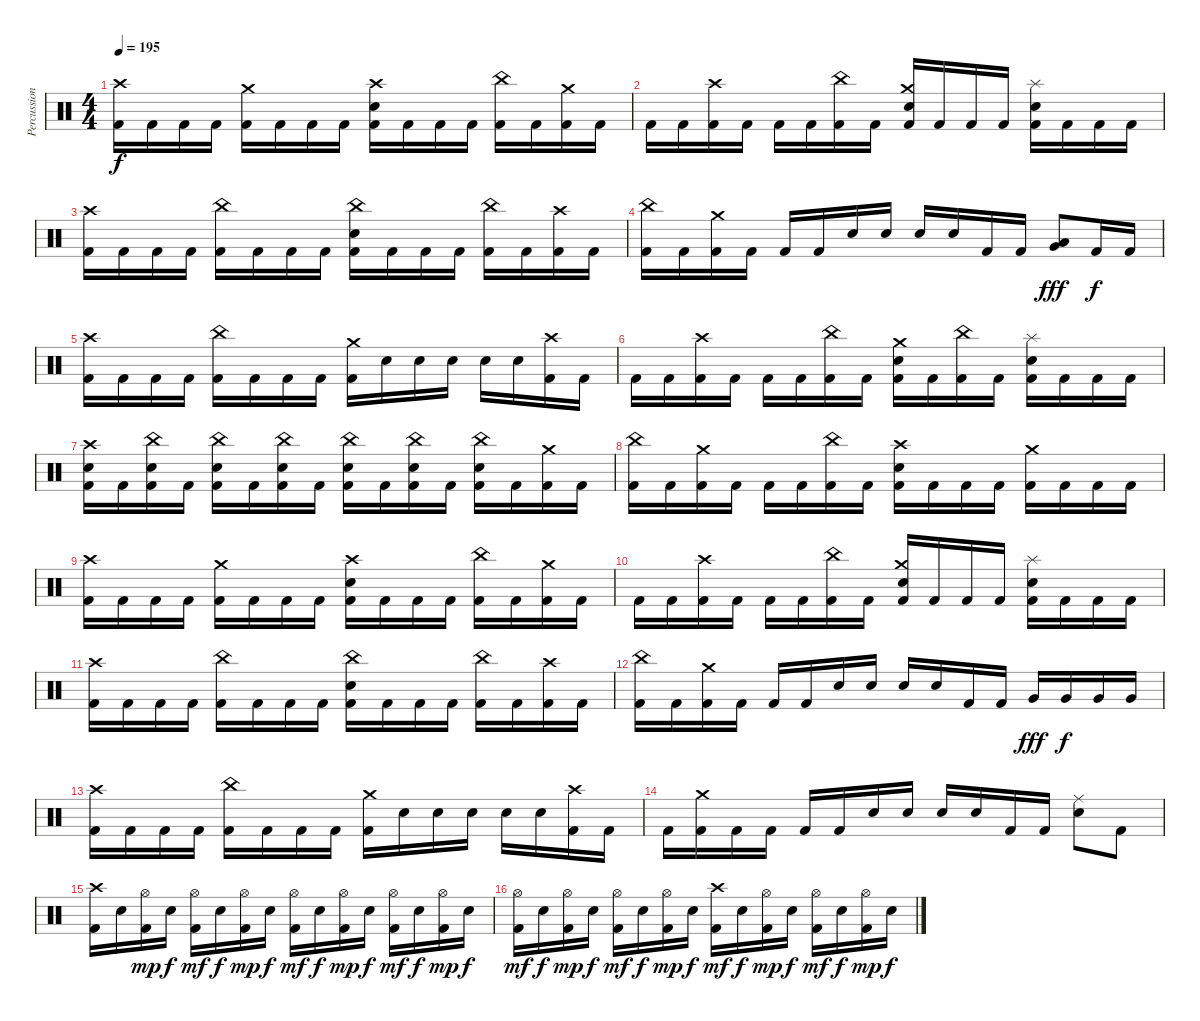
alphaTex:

\track ("Percussion" "Percussion") {instrument percussion}
\staff {score}
\articulation defaults
\ts (4 4)
\tempo 195
\clef neutral
\ks c
("Crash high (hit)" "Kick (hit) 2").16{dy f} "Kick (hit) 2".16 "Kick (hit) 2".16 "Kick (hit) 2".16 ("Crash medium (hit)" "Kick (hit) 2").16 "Kick (hit) 2".16 "Kick (hit) 2".16 "Kick (hit) 2".16 ("Crash high (hit)" "Snare (hit) 2" "Kick (hit) 2").16 "Kick (hit) 2".16 "Kick (hit) 2".16 "Kick (hit) 2".16 ("China (hit)" "Kick (hit) 2").16 "Kick (hit) 2".16 ("Crash medium (hit)" "Kick (hit) 2").16 "Kick (hit) 2".16 |
"Kick (hit) 2".16 "Kick (hit) 2".16 ("Crash high (hit)" "Kick (hit) 2").16 "Kick (hit) 2".16 "Kick (hit) 2".16 "Kick (hit) 2".16 ("China (hit)" "Kick (hit) 2").16 "Kick (hit) 2".16 ("Crash medium (hit)" "Snare (hit) 2" "Kick (hit) 2").16 "Kick (hit) 2".16 "Kick (hit) 2".16 "Kick (hit) 2".16 ("Splash (hit)" "Snare (hit) 2" "Kick (hit) 2").16 "Kick (hit) 2".16 "Kick (hit) 2".16 "Kick (hit) 2".16 |
("Crash high (hit)" "Kick (hit) 2").16 "Kick (hit) 2".16 "Kick (hit) 2".16 "Kick (hit) 2".16 ("China (hit)" "Kick (hit) 2").16 "Kick (hit) 2".16 "Kick (hit) 2".16 "Kick (hit) 2".16 ("China (hit)" "Snare (hit) 2" "Kick (hit) 2").16 "Kick (hit) 2".16 "Kick (hit) 2".16 "Kick (hit) 2".16 ("China (hit)" "Kick (hit) 2").16 "Kick (hit) 2".16 ("Crash high (hit)" "Kick (hit) 2").16 "Kick (hit) 2".16 |
("China (hit)" "Kick (hit) 2").16 "Kick (hit) 2".16 ("Crash medium (hit)" "Kick (hit) 2").16 "Kick (hit) 2".16 "Kick (hit) 2".16 "Kick (hit) 2".16 "Snare (hit) 2".16 "Snare (hit) 2".16 "Snare (hit) 2".16 "Snare (hit) 2".16 "Kick (hit) 2".16 "Kick (hit) 2".16 ("Very Low Tom (hit)" "Low Floor Tom (hit)").8{dy fff} "Kick (hit) 2".16{dy f} "Kick (hit) 2".16 |
("Crash high (hit)" "Kick (hit) 2").16 "Kick (hit) 2".16 "Kick (hit) 2".16 "Kick (hit) 2".16 ("China (hit)" "Kick (hit) 2").16 "Kick (hit) 2".16 "Kick (hit) 2".16 "Kick (hit) 2".16 ("Crash medium (hit)" "Kick (hit) 2").16 "Snare (hit) 2".16 "Snare (hit) 2".16 "Snare (hit) 2".16 "Snare (hit) 2".16 "Snare (hit) 2".16 ("Crash high (hit)" "Kick (hit) 2").16 "Kick (hit) 2".16 |
"Kick (hit) 2".16 "Kick (hit) 2".16 ("Crash high (hit)" "Kick (hit) 2").16 "Kick (hit) 2".16 "Kick (hit) 2".16 "Kick (hit) 2".16 ("China (hit)" "Kick (hit) 2").16 "Kick (hit) 2".16 ("Crash medium (hit)" "Snare (hit) 2" "Kick (hit) 2").16 "Kick (hit) 2".16 ("China (hit)" "Kick (hit) 2").16 "Kick (hit) 2".16 ("Splash (hit)" "Snare (hit) 2" "Kick (hit) 2").16 "Kick (hit) 2".16 "Kick (hit) 2".16 "Kick (hit) 2".16 |
("Crash high (hit)" "Snare (hit) 2" "Kick (hit) 2").16 "Kick (hit) 2".16 ("China (hit)" "Snare (hit) 2" "Kick (hit) 2").16 "Kick (hit) 2".16 ("China (hit)" "Snare (hit) 2" "Kick (hit) 2").16 "Kick (hit) 2".16 ("China (hit)" "Snare (hit) 2" "Kick (hit) 2").16 "Kick (hit) 2".16 ("China (hit)" "Snare (hit) 2" "Kick (hit) 2").16 "Kick (hit) 2".16 ("China (hit)" "Snare (hit) 2" "Kick (hit) 2").16 "Kick (hit) 2".16 ("China (hit)" "Snare (hit) 2" "Kick (hit) 2").16 "Kick (hit) 2".16 ("Crash medium (hit)" "Kick (hit) 2").16 "Kick (hit) 2".16 |
("China (hit)" "Kick (hit) 2").16 "Kick (hit) 2".16 ("Crash medium (hit)" "Kick (hit) 2").16 "Kick (hit) 2".16 "Kick (hit) 2".16 "Kick (hit) 2".16 ("China (hit)" "Kick (hit) 2").16 "Kick (hit) 2".16 ("Crash high (hit)" "Snare (hit) 2" "Kick (hit) 2").16 "Kick (hit) 2".16 "Kick (hit) 2".16 "Kick (hit) 2".16 ("Crash medium (hit)" "Kick (hit) 2").16 "Kick (hit) 2".16 "Kick (hit) 2".16 "Kick (hit) 2".16 |
("Crash high (hit)" "Kick (hit) 2").16 "Kick (hit) 2".16 "Kick (hit) 2".16 "Kick (hit) 2".16 ("Crash medium (hit)" "Kick (hit) 2").16 "Kick (hit) 2".16 "Kick (hit) 2".16 "Kick (hit) 2".16 ("Crash high (hit)" "Snare (hit) 2" "Kick (hit) 2").16 "Kick (hit) 2".16 "Kick (hit) 2".16 "Kick (hit) 2".16 ("China (hit)" "Kick (hit) 2").16 "Kick (hit) 2".16 ("Crash medium (hit)" "Kick (hit) 2").16 "Kick (hit) 2".16 |
"Kick (hit) 2".16 "Kick (hit) 2".16 ("Crash high (hit)" "Kick (hit) 2").16 "Kick (hit) 2".16 "Kick (hit) 2".16 "Kick (hit) 2".16 ("China (hit)" "Kick (hit) 2").16 "Kick (hit) 2".16 ("Crash medium (hit)" "Snare (hit) 2" "Kick (hit) 2").16 "Kick (hit) 2".16 "Kick (hit) 2".16 "Kick (hit) 2".16 ("Splash (hit)" "Snare (hit) 2" "Kick (hit) 2").16 "Kick (hit) 2".16 "Kick (hit) 2".16 "Kick (hit) 2".16 |
("Crash high (hit)" "Kick (hit) 2").16 "Kick (hit) 2".16 "Kick (hit) 2".16 "Kick (hit) 2".16 ("China (hit)" "Kick (hit) 2").16 "Kick (hit) 2".16 "Kick (hit) 2".16 "Kick (hit) 2".16 ("China (hit)" "Snare (hit) 2" "Kick (hit) 2").16 "Kick (hit) 2".16 "Kick (hit) 2".16 "Kick (hit) 2".16 ("China (hit)" "Kick (hit) 2").16 "Kick (hit) 2".16 ("Crash high (hit)" "Kick (hit) 2").16 "Kick (hit) 2".16 |
("China (hit)" "Kick (hit) 2").16 "Kick (hit) 2".16 ("Crash medium (hit)" "Kick (hit) 2").16 "Kick (hit) 2".16 "Kick (hit) 2".16 "Kick (hit) 2".16 "Snare (hit) 2".16 "Snare (hit) 2".16 "Snare (hit) 2".16 "Snare (hit) 2".16 "Kick (hit) 2".16 "Kick (hit) 2".16 "Very Low Tom (hit)".16{dy fff} "Very Low Tom (hit)".16{dy f} "Very Low Tom (hit)".16 "Very Low Tom (hit)".16 |
("Crash high (hit)" "Kick (hit) 2").16 "Kick (hit) 2".16 "Kick (hit) 2".16 "Kick (hit) 2".16 ("China (hit)" "Kick (hit) 2").16 "Kick (hit) 2".16 "Kick (hit) 2".16 "Kick (hit) 2".16 ("Crash medium (hit)" "Kick (hit) 2").16 "Snare (hit) 2".16 "Snare (hit) 2".16 "Snare (hit) 2".16 "Snare (hit) 2".16 "Snare (hit) 2".16 ("Crash high (hit)" "Kick (hit) 2").16 "Kick (hit) 2".16 |
"Kick (hit) 2".16 ("Crash medium (hit)" "Kick (hit) 2").16 "Kick (hit) 2".16 "Kick (hit) 2".16 "Kick (hit) 2".16 "Kick (hit) 2".16 "Snare (hit) 2".16 "Snare (hit) 2".16 "Snare (hit) 2".16 "Snare (hit) 2".16 "Kick (hit) 2".16 "Kick (hit) 2".16 ("Ride (middle)" "Snare (hit) 2").8 "Kick (hit) 2".8 |
("Crash high (hit)" "Kick (hit) 2").16 "Snare (hit) 2".16 ("Hi-Hat (open)" "Kick (hit) 2").16{dy mp} "Snare (hit) 2".16{dy f} ("Hi-Hat (open)" "Kick (hit) 2").16{dy mf} "Snare (hit) 2".16{dy f} ("Hi-Hat (open)" "Kick (hit) 2").16{dy mp} "Snare (hit) 2".16{dy f} ("Hi-Hat (open)" "Kick (hit) 2").16{dy mf} "Snare (hit) 2".16{dy f} ("Hi-Hat (open)" "Kick (hit) 2").16{dy mp} "Snare (hit) 2".16{dy f} ("Hi-Hat (open)" "Kick (hit) 2").16{dy mf} "Snare (hit) 2".16{dy f} ("Hi-Hat (open)" "Kick (hit) 2").16{dy mp} "Snare (hit) 2".16{dy f} |
("Hi-Hat (open)" "Kick (hit) 2").16{dy mf} "Snare (hit) 2".16{dy f} ("Hi-Hat (open)" "Kick (hit) 2").16{dy mp} "Snare (hit) 2".16{dy f} ("Hi-Hat (open)" "Kick (hit) 2").16{dy mf} "Snare (hit) 2".16{dy f} ("Hi-Hat (open)" "Kick (hit) 2").16{dy mp} "Snare (hit) 2".16{dy f} ("Crash high (hit)" "Kick (hit) 2").16{dy mf} "Snare (hit) 2".16{dy f} ("Hi-Hat (open)" "Kick (hit) 2").16{dy mp} "Snare (hit) 2".16{dy f} ("Hi-Hat (open)" "Kick (hit) 2").16{dy mf} "Snare (hit) 2".16{dy f} ("Hi-Hat (open)" "Kick (hit) 2").16{dy mp} "Snare (hit) 2".16{dy f}
